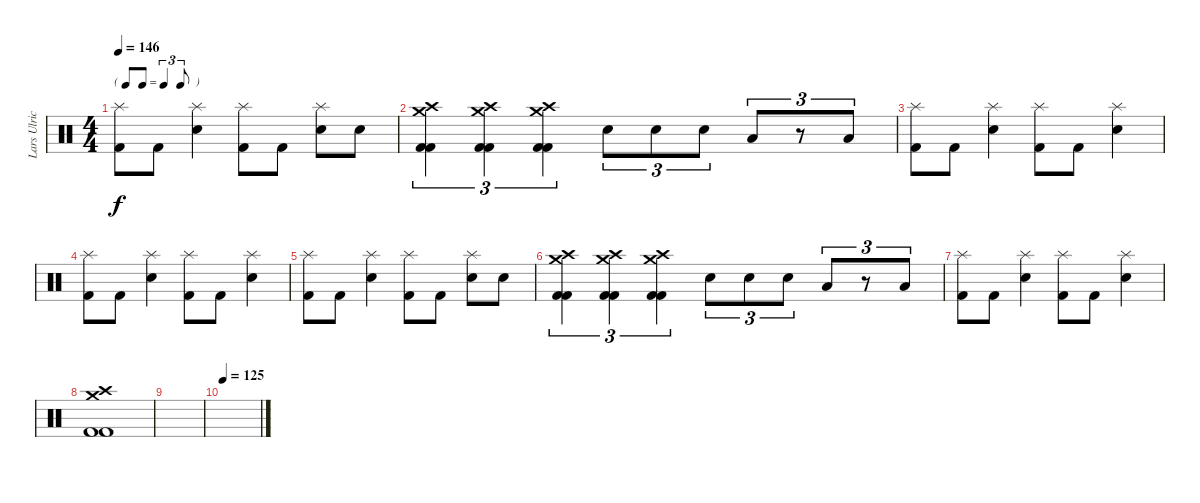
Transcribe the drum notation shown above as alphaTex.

\track ("Lars Ulrich" "Lars Ulric") {instrument percussion}
\staff {score}
\articulation defaults
\ts (4 4)
\tf triplet8th
\tempo 146
\clef neutral
\ks c
("Splash (hit)" "Kick (hit) 2").8{dy f} "Kick (hit) 2".8 ("Splash (hit)" "Snare (hit) 2").4 ("Splash (hit)" "Kick (hit) 2").8 "Kick (hit) 2".8 ("Splash (hit)" "Snare (hit) 2").8 "Snare (hit) 2".8 |
("Crash high (hit)" "Crash medium (hit)" "Kick (hit) 2" "Kick (hit) 2").4{tu (3 2)} ("Crash high (hit)" "Crash medium (hit)" "Kick (hit) 2" "Kick (hit) 2").4{tu (3 2)} ("Crash high (hit)" "Crash medium (hit)" "Kick (hit) 2" "Kick (hit) 2").4{tu (3 2)} "Snare (hit) 2".8{tu (3 2)} "Snare (hit) 2".8{tu (3 2)} "Snare (hit) 2".8{tu (3 2)} "Low Tom (hit)".8{tu (3 2)} r.8{tu (3 2)} "Low Tom (hit)".8{tu (3 2)} |
("Splash (hit)" "Kick (hit) 2").8 "Kick (hit) 2".8 ("Splash (hit)" "Snare (hit) 2").4 ("Splash (hit)" "Kick (hit) 2").8 "Kick (hit) 2".8 ("Splash (hit)" "Snare (hit) 2").4 |
("Splash (hit)" "Kick (hit) 2").8 "Kick (hit) 2".8 ("Splash (hit)" "Snare (hit) 2").4 ("Splash (hit)" "Kick (hit) 2").8 "Kick (hit) 2".8 ("Splash (hit)" "Snare (hit) 2").4 |
("Splash (hit)" "Kick (hit) 2").8 "Kick (hit) 2".8 ("Splash (hit)" "Snare (hit) 2").4 ("Splash (hit)" "Kick (hit) 2").8 "Kick (hit) 2".8 ("Splash (hit)" "Snare (hit) 2").8 "Snare (hit) 2".8 |
("Crash high (hit)" "Crash medium (hit)" "Kick (hit) 2" "Kick (hit) 2").4{tu (3 2)} ("Crash high (hit)" "Crash medium (hit)" "Kick (hit) 2" "Kick (hit) 2").4{tu (3 2)} ("Crash high (hit)" "Crash medium (hit)" "Kick (hit) 2" "Kick (hit) 2").4{tu (3 2)} "Snare (hit) 2".8{tu (3 2)} "Snare (hit) 2".8{tu (3 2)} "Snare (hit) 2".8{tu (3 2)} "Low Tom (hit)".8{tu (3 2)} r.8{tu (3 2)} "Low Tom (hit)".8{tu (3 2)} |
("Splash (hit)" "Kick (hit) 2").8 "Kick (hit) 2".8 ("Splash (hit)" "Snare (hit) 2").4 ("Splash (hit)" "Kick (hit) 2").8 "Kick (hit) 2".8 ("Splash (hit)" "Snare (hit) 2").4 |
("Crash medium (hit)" "Crash high (hit)" "Kick (hit) 2" "Kick (hit) 2").1 |
|
\tempo 125
